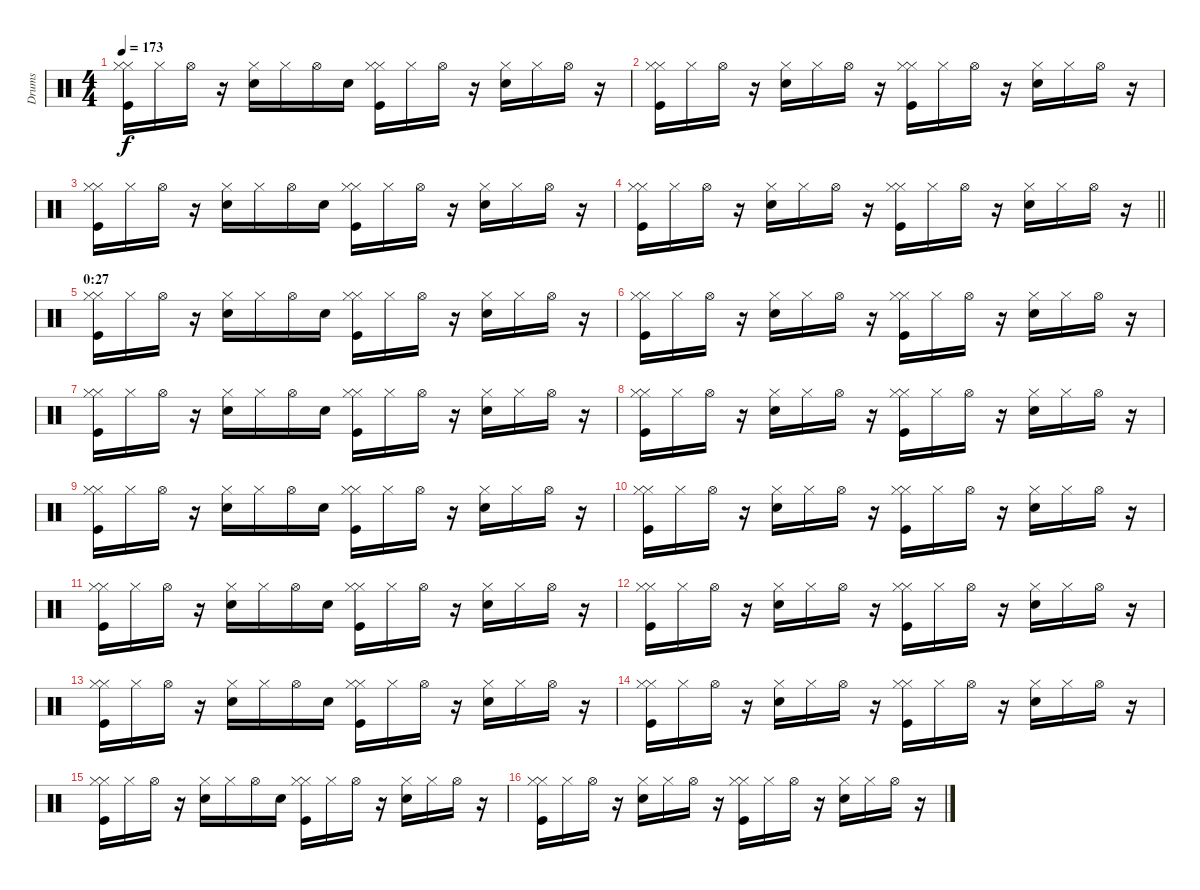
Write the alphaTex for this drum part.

\track ("Drums" "Drums") {instrument percussion}
\staff {score}
\articulation defaults
\ts (4 4)
\tempo 173
\clef neutral
\ks c
("Hi-Hat (closed)" "Hi-Hat (closed)" "Kick (hit)").16{dy f} "Hi-Hat (closed)".16 "Hi-Hat (open)".16 r.16 ("Hi-Hat (closed)" "Snare (hit) 2").16 "Hi-Hat (closed)".16 "Hi-Hat (open)".16 "Snare (hit) 2".16 ("Hi-Hat (closed)" "Hi-Hat (closed)" "Kick (hit)").16 "Hi-Hat (closed)".16 "Hi-Hat (open)".16 r.16 ("Hi-Hat (closed)" "Snare (hit) 2").16 "Hi-Hat (closed)".16 "Hi-Hat (open)".16 r.16 |
("Hi-Hat (closed)" "Hi-Hat (closed)" "Kick (hit)").16 "Hi-Hat (closed)".16 "Hi-Hat (open)".16 r.16 ("Hi-Hat (closed)" "Snare (hit) 2").16 "Hi-Hat (closed)".16 "Hi-Hat (open)".16 r.16 ("Hi-Hat (closed)" "Hi-Hat (closed)" "Kick (hit)").16 "Hi-Hat (closed)".16 "Hi-Hat (open)".16 r.16 ("Hi-Hat (closed)" "Snare (hit) 2").16 "Hi-Hat (closed)".16 "Hi-Hat (open)".16 r.16 |
("Hi-Hat (closed)" "Hi-Hat (closed)" "Kick (hit)").16 "Hi-Hat (closed)".16 "Hi-Hat (open)".16 r.16 ("Hi-Hat (closed)" "Snare (hit) 2").16 "Hi-Hat (closed)".16 "Hi-Hat (open)".16 "Snare (hit) 2".16 ("Hi-Hat (closed)" "Hi-Hat (closed)" "Kick (hit)").16 "Hi-Hat (closed)".16 "Hi-Hat (open)".16 r.16 ("Hi-Hat (closed)" "Snare (hit) 2").16 "Hi-Hat (closed)".16 "Hi-Hat (open)".16 r.16 |
\barLineRight lightlight
("Hi-Hat (closed)" "Hi-Hat (closed)" "Kick (hit)").16 "Hi-Hat (closed)".16 "Hi-Hat (open)".16 r.16 ("Hi-Hat (closed)" "Snare (hit) 2").16 "Hi-Hat (closed)".16 "Hi-Hat (open)".16 r.16 ("Hi-Hat (closed)" "Hi-Hat (closed)" "Kick (hit)").16 "Hi-Hat (closed)".16 "Hi-Hat (open)".16 r.16 ("Hi-Hat (closed)" "Snare (hit) 2").16 "Hi-Hat (closed)".16 "Hi-Hat (open)".16 r.16 |
\section ("" "0:27")
("Hi-Hat (closed)" "Hi-Hat (closed)" "Kick (hit)").16 "Hi-Hat (closed)".16 "Hi-Hat (open)".16 r.16 ("Hi-Hat (closed)" "Snare (hit) 2").16 "Hi-Hat (closed)".16 "Hi-Hat (open)".16 "Snare (hit) 2".16 ("Hi-Hat (closed)" "Hi-Hat (closed)" "Kick (hit)").16 "Hi-Hat (closed)".16 "Hi-Hat (open)".16 r.16 ("Hi-Hat (closed)" "Snare (hit) 2").16 "Hi-Hat (closed)".16 "Hi-Hat (open)".16 r.16 |
("Hi-Hat (closed)" "Hi-Hat (closed)" "Kick (hit)").16 "Hi-Hat (closed)".16 "Hi-Hat (open)".16 r.16 ("Hi-Hat (closed)" "Snare (hit) 2").16 "Hi-Hat (closed)".16 "Hi-Hat (open)".16 r.16 ("Hi-Hat (closed)" "Hi-Hat (closed)" "Kick (hit)").16 "Hi-Hat (closed)".16 "Hi-Hat (open)".16 r.16 ("Hi-Hat (closed)" "Snare (hit) 2").16 "Hi-Hat (closed)".16 "Hi-Hat (open)".16 r.16 |
("Hi-Hat (closed)" "Hi-Hat (closed)" "Kick (hit)").16 "Hi-Hat (closed)".16 "Hi-Hat (open)".16 r.16 ("Hi-Hat (closed)" "Snare (hit) 2").16 "Hi-Hat (closed)".16 "Hi-Hat (open)".16 "Snare (hit) 2".16 ("Hi-Hat (closed)" "Hi-Hat (closed)" "Kick (hit)").16 "Hi-Hat (closed)".16 "Hi-Hat (open)".16 r.16 ("Hi-Hat (closed)" "Snare (hit) 2").16 "Hi-Hat (closed)".16 "Hi-Hat (open)".16 r.16 |
("Hi-Hat (closed)" "Hi-Hat (closed)" "Kick (hit)").16 "Hi-Hat (closed)".16 "Hi-Hat (open)".16 r.16 ("Hi-Hat (closed)" "Snare (hit) 2").16 "Hi-Hat (closed)".16 "Hi-Hat (open)".16 r.16 ("Hi-Hat (closed)" "Hi-Hat (closed)" "Kick (hit)").16 "Hi-Hat (closed)".16 "Hi-Hat (open)".16 r.16 ("Hi-Hat (closed)" "Snare (hit) 2").16 "Hi-Hat (closed)".16 "Hi-Hat (open)".16 r.16 |
("Hi-Hat (closed)" "Hi-Hat (closed)" "Kick (hit)").16 "Hi-Hat (closed)".16 "Hi-Hat (open)".16 r.16 ("Hi-Hat (closed)" "Snare (hit) 2").16 "Hi-Hat (closed)".16 "Hi-Hat (open)".16 "Snare (hit) 2".16 ("Hi-Hat (closed)" "Hi-Hat (closed)" "Kick (hit)").16 "Hi-Hat (closed)".16 "Hi-Hat (open)".16 r.16 ("Hi-Hat (closed)" "Snare (hit) 2").16 "Hi-Hat (closed)".16 "Hi-Hat (open)".16 r.16 |
("Hi-Hat (closed)" "Hi-Hat (closed)" "Kick (hit)").16 "Hi-Hat (closed)".16 "Hi-Hat (open)".16 r.16 ("Hi-Hat (closed)" "Snare (hit) 2").16 "Hi-Hat (closed)".16 "Hi-Hat (open)".16 r.16 ("Hi-Hat (closed)" "Hi-Hat (closed)" "Kick (hit)").16 "Hi-Hat (closed)".16 "Hi-Hat (open)".16 r.16 ("Hi-Hat (closed)" "Snare (hit) 2").16 "Hi-Hat (closed)".16 "Hi-Hat (open)".16 r.16 |
("Hi-Hat (closed)" "Hi-Hat (closed)" "Kick (hit)").16 "Hi-Hat (closed)".16 "Hi-Hat (open)".16 r.16 ("Hi-Hat (closed)" "Snare (hit) 2").16 "Hi-Hat (closed)".16 "Hi-Hat (open)".16 "Snare (hit) 2".16 ("Hi-Hat (closed)" "Hi-Hat (closed)" "Kick (hit)").16 "Hi-Hat (closed)".16 "Hi-Hat (open)".16 r.16 ("Hi-Hat (closed)" "Snare (hit) 2").16 "Hi-Hat (closed)".16 "Hi-Hat (open)".16 r.16 |
("Hi-Hat (closed)" "Hi-Hat (closed)" "Kick (hit)").16 "Hi-Hat (closed)".16 "Hi-Hat (open)".16 r.16 ("Hi-Hat (closed)" "Snare (hit) 2").16 "Hi-Hat (closed)".16 "Hi-Hat (open)".16 r.16 ("Hi-Hat (closed)" "Hi-Hat (closed)" "Kick (hit)").16 "Hi-Hat (closed)".16 "Hi-Hat (open)".16 r.16 ("Hi-Hat (closed)" "Snare (hit) 2").16 "Hi-Hat (closed)".16 "Hi-Hat (open)".16 r.16 |
("Hi-Hat (closed)" "Hi-Hat (closed)" "Kick (hit)").16 "Hi-Hat (closed)".16 "Hi-Hat (open)".16 r.16 ("Hi-Hat (closed)" "Snare (hit) 2").16 "Hi-Hat (closed)".16 "Hi-Hat (open)".16 "Snare (hit) 2".16 ("Hi-Hat (closed)" "Hi-Hat (closed)" "Kick (hit)").16 "Hi-Hat (closed)".16 "Hi-Hat (open)".16 r.16 ("Hi-Hat (closed)" "Snare (hit) 2").16 "Hi-Hat (closed)".16 "Hi-Hat (open)".16 r.16 |
("Hi-Hat (closed)" "Hi-Hat (closed)" "Kick (hit)").16 "Hi-Hat (closed)".16 "Hi-Hat (open)".16 r.16 ("Hi-Hat (closed)" "Snare (hit) 2").16 "Hi-Hat (closed)".16 "Hi-Hat (open)".16 r.16 ("Hi-Hat (closed)" "Hi-Hat (closed)" "Kick (hit)").16 "Hi-Hat (closed)".16 "Hi-Hat (open)".16 r.16 ("Hi-Hat (closed)" "Snare (hit) 2").16 "Hi-Hat (closed)".16 "Hi-Hat (open)".16 r.16 |
("Hi-Hat (closed)" "Hi-Hat (closed)" "Kick (hit)").16 "Hi-Hat (closed)".16 "Hi-Hat (open)".16 r.16 ("Hi-Hat (closed)" "Snare (hit) 2").16 "Hi-Hat (closed)".16 "Hi-Hat (open)".16 "Snare (hit) 2".16 ("Hi-Hat (closed)" "Hi-Hat (closed)" "Kick (hit)").16 "Hi-Hat (closed)".16 "Hi-Hat (open)".16 r.16 ("Hi-Hat (closed)" "Snare (hit) 2").16 "Hi-Hat (closed)".16 "Hi-Hat (open)".16 r.16 |
("Hi-Hat (closed)" "Hi-Hat (closed)" "Kick (hit)").16 "Hi-Hat (closed)".16 "Hi-Hat (open)".16 r.16 ("Hi-Hat (closed)" "Snare (hit) 2").16 "Hi-Hat (closed)".16 "Hi-Hat (open)".16 r.16 ("Hi-Hat (closed)" "Hi-Hat (closed)" "Kick (hit)").16 "Hi-Hat (closed)".16 "Hi-Hat (open)".16 r.16 ("Hi-Hat (closed)" "Snare (hit) 2").16 "Hi-Hat (closed)".16 "Hi-Hat (open)".16 r.16
